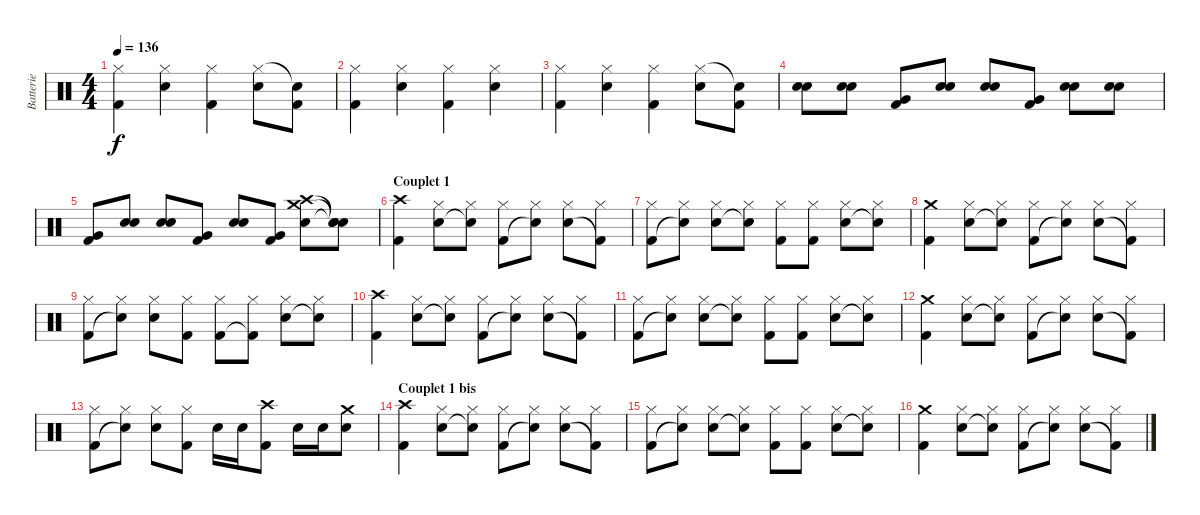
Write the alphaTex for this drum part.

\track ("Batterie" "Batterie") {instrument percussion}
\staff {score}
\articulation defaults
\ts (4 4)
\tempo 136
\clef neutral
\ks c
("Hi-Hat (closed)" "Kick (hit) 2").4{dy f} ("Hi-Hat (closed)" "Snare (hit) 2").4 ("Hi-Hat (closed)" "Kick (hit) 2").4 ("Hi-Hat (closed)" "Snare (hit) 2").8 ("Snare (hit)"{t} "Kick (hit) 2").8 |
("Hi-Hat (closed)" "Kick (hit) 2").4 ("Hi-Hat (closed)" "Snare (hit) 2").4 ("Hi-Hat (closed)" "Kick (hit) 2").4 ("Hi-Hat (closed)" "Snare (hit) 2").4 |
("Hi-Hat (closed)" "Kick (hit) 2").4 ("Hi-Hat (closed)" "Snare (hit) 2").4 ("Hi-Hat (closed)" "Kick (hit) 2").4 ("Hi-Hat (closed)" "Snare (hit) 2").8 ("Snare (hit)"{t} "Kick (hit) 2").8 |
("Snare (hit) 2" "Snare (hit) 2").8 ("Snare (hit) 2" "Snare (hit) 2").8 ("Very Low Tom (hit)" "Kick (hit) 2").8 ("Snare (hit) 2" "Snare (hit) 2").8 ("Snare (hit) 2" "Snare (hit) 2").8 ("Very Low Tom (hit)" "Kick (hit) 2").8 ("Snare (hit) 2" "Snare (hit) 2").8 ("Snare (hit) 2" "Snare (hit) 2").8 |
("Very Low Tom (hit)" "Kick (hit) 2").8 ("Snare (hit) 2" "Snare (hit) 2").8 ("Snare (hit) 2" "Snare (hit) 2").8 ("Very Low Tom (hit)" "Kick (hit) 2").8 ("Snare (hit) 2" "Snare (hit) 2").8 ("Very Low Tom (hit)" "Kick (hit) 2").8 ("Crash high (hit)" "Crash medium (hit)" "Snare (hit) 2").8 ("Snare (hit)"{t} "Snare (hit)"{t} "Snare (hit)"{t}).8 |
\section ("" "Couplet 1")
("Crash high (hit)" "Kick (hit) 2").4 ("Hi-Hat (closed)" "Snare (hit) 2").8 ("Hi-Hat (closed)" "Snare (hit)"{t}).8 ("Hi-Hat (closed)" "Kick (hit) 2").8 ("Hi-Hat (closed)" "Snare (hit)"{t}).8 ("Hi-Hat (closed)" "Snare (hit) 2").8 ("Hi-Hat (closed)" "Kick (hit) 2"{t}).8 |
("Hi-Hat (closed)" "Kick (hit) 2").8 ("Hi-Hat (closed)" "Snare (hit)"{t}).8 ("Hi-Hat (closed)" "Snare (hit) 2").8 ("Hi-Hat (closed)" "Snare (hit)"{t}).8 ("Hi-Hat (closed)" "Kick (hit) 2").8 ("Hi-Hat (closed)" "Kick (hit) 2").8 ("Hi-Hat (closed)" "Snare (hit) 2").8 ("Hi-Hat (closed)" "Snare (hit)"{t}).8 |
("Crash medium (hit)" "Kick (hit) 2").4 ("Hi-Hat (closed)" "Snare (hit) 2").8 ("Hi-Hat (closed)" "Snare (hit)"{t}).8 ("Hi-Hat (closed)" "Kick (hit) 2").8 ("Hi-Hat (closed)" "Snare (hit)"{t}).8 ("Hi-Hat (closed)" "Snare (hit) 2").8 ("Hi-Hat (closed)" "Kick (hit) 2"{t}).8 |
("Hi-Hat (closed)" "Kick (hit) 2").8 ("Hi-Hat (closed)" "Snare (hit)"{t}).8 ("Hi-Hat (closed)" "Snare (hit) 2").8 ("Hi-Hat (closed)" "Kick (hit) 2").8 ("Hi-Hat (closed)" "Kick (hit) 2").8 ("Hi-Hat (closed)" "Kick (hit) 2"{t}).8 ("Hi-Hat (closed)" "Snare (hit) 2").8 ("Hi-Hat (closed)" "Snare (hit)"{t}).8 |
("Crash high (hit)" "Kick (hit) 2").4 ("Hi-Hat (closed)" "Snare (hit) 2").8 ("Hi-Hat (closed)" "Snare (hit)"{t}).8 ("Hi-Hat (closed)" "Kick (hit) 2").8 ("Hi-Hat (closed)" "Snare (hit)"{t}).8 ("Hi-Hat (closed)" "Snare (hit) 2").8 ("Hi-Hat (closed)" "Kick (hit) 2"{t}).8 |
("Hi-Hat (closed)" "Kick (hit) 2").8 ("Hi-Hat (closed)" "Snare (hit)"{t}).8 ("Hi-Hat (closed)" "Snare (hit) 2").8 ("Hi-Hat (closed)" "Snare (hit)"{t}).8 ("Hi-Hat (closed)" "Kick (hit) 2").8 ("Hi-Hat (closed)" "Kick (hit) 2").8 ("Hi-Hat (closed)" "Snare (hit) 2").8 ("Hi-Hat (closed)" "Snare (hit)"{t}).8 |
("Crash medium (hit)" "Kick (hit) 2").4 ("Hi-Hat (closed)" "Snare (hit) 2").8 ("Hi-Hat (closed)" "Snare (hit)"{t}).8 ("Hi-Hat (closed)" "Kick (hit) 2").8 ("Hi-Hat (closed)" "Snare (hit)"{t}).8 ("Hi-Hat (closed)" "Snare (hit) 2").8 ("Hi-Hat (closed)" "Kick (hit) 2"{t}).8 |
("Hi-Hat (closed)" "Kick (hit) 2").8 ("Hi-Hat (closed)" "Snare (hit)"{t}).8 ("Hi-Hat (closed)" "Snare (hit) 2").8 ("Hi-Hat (closed)" "Kick (hit) 2").8 "Snare (hit) 2".16 "Snare (hit) 2".16 ("Crash high (hit)" "Kick (hit) 2").8 "Snare (hit) 2".16 "Snare (hit) 2".16 ("Crash medium (hit)" "Snare (hit) 2").8 |
\section ("" "Couplet 1 bis")
("Crash high (hit)" "Kick (hit) 2").4 ("Hi-Hat (closed)" "Snare (hit) 2").8 ("Hi-Hat (closed)" "Snare (hit)"{t}).8 ("Hi-Hat (closed)" "Kick (hit) 2").8 ("Hi-Hat (closed)" "Snare (hit)"{t}).8 ("Hi-Hat (closed)" "Snare (hit) 2").8 ("Hi-Hat (closed)" "Kick (hit) 2"{t}).8 |
("Hi-Hat (closed)" "Kick (hit) 2").8 ("Hi-Hat (closed)" "Snare (hit)"{t}).8 ("Hi-Hat (closed)" "Snare (hit) 2").8 ("Hi-Hat (closed)" "Snare (hit)"{t}).8 ("Hi-Hat (closed)" "Kick (hit) 2").8 ("Hi-Hat (closed)" "Kick (hit) 2").8 ("Hi-Hat (closed)" "Snare (hit) 2").8 ("Hi-Hat (closed)" "Snare (hit)"{t}).8 |
("Crash medium (hit)" "Kick (hit) 2").4 ("Hi-Hat (closed)" "Snare (hit) 2").8 ("Hi-Hat (closed)" "Snare (hit)"{t}).8 ("Hi-Hat (closed)" "Kick (hit) 2").8 ("Hi-Hat (closed)" "Snare (hit)"{t}).8 ("Hi-Hat (closed)" "Snare (hit) 2").8 ("Hi-Hat (closed)" "Kick (hit) 2"{t}).8
